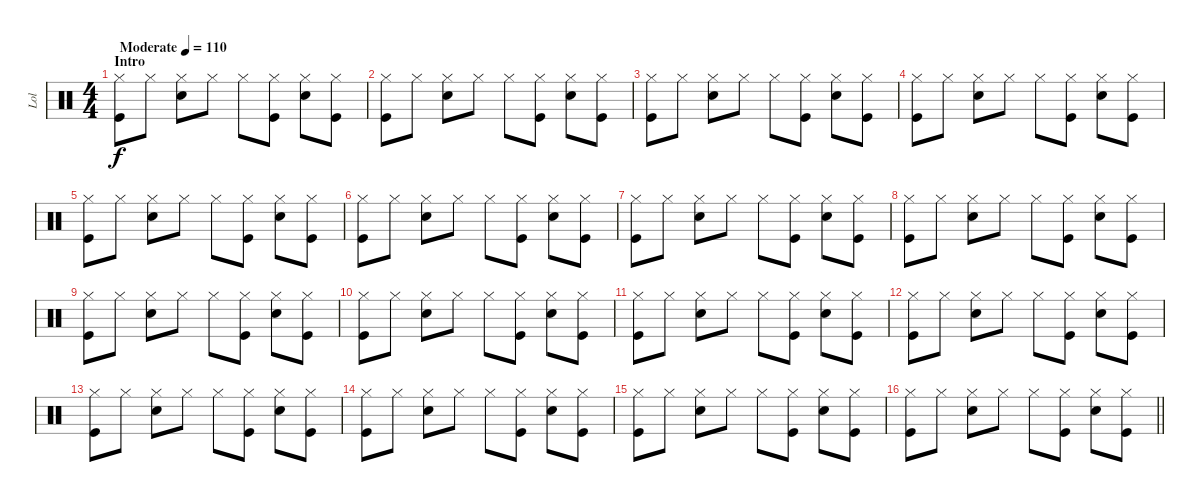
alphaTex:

\track ("Lol" "Lol") {instrument percussion}
\staff {score}
\articulation defaults
\ts (4 4)
\section ("" "Intro")
\tempo (110 "Moderate")
\clef neutral
\ks c
("Hi-Hat (closed)" "Kick (hit)").8{dy f} "Hi-Hat (closed)".8 ("Hi-Hat (closed)" "Electric Snare (hit)").8 "Hi-Hat (closed)".8 "Hi-Hat (closed)".8 ("Hi-Hat (closed)" "Kick (hit)").8 ("Hi-Hat (closed)" "Electric Snare (hit)").8 ("Hi-Hat (closed)" "Kick (hit)").8 |
("Hi-Hat (closed)" "Kick (hit)").8 "Hi-Hat (closed)".8 ("Hi-Hat (closed)" "Electric Snare (hit)").8 "Hi-Hat (closed)".8 "Hi-Hat (closed)".8 ("Hi-Hat (closed)" "Kick (hit)").8 ("Hi-Hat (closed)" "Electric Snare (hit)").8 ("Hi-Hat (closed)" "Kick (hit)").8 |
("Hi-Hat (closed)" "Kick (hit)").8 "Hi-Hat (closed)".8 ("Hi-Hat (closed)" "Electric Snare (hit)").8 "Hi-Hat (closed)".8 "Hi-Hat (closed)".8 ("Hi-Hat (closed)" "Kick (hit)").8 ("Hi-Hat (closed)" "Electric Snare (hit)").8 ("Hi-Hat (closed)" "Kick (hit)").8 |
("Hi-Hat (closed)" "Kick (hit)").8 "Hi-Hat (closed)".8 ("Hi-Hat (closed)" "Electric Snare (hit)").8 "Hi-Hat (closed)".8 "Hi-Hat (closed)".8 ("Hi-Hat (closed)" "Kick (hit)").8 ("Hi-Hat (closed)" "Electric Snare (hit)").8 ("Hi-Hat (closed)" "Kick (hit)").8 |
("Hi-Hat (closed)" "Kick (hit)").8 "Hi-Hat (closed)".8 ("Hi-Hat (closed)" "Electric Snare (hit)").8 "Hi-Hat (closed)".8 "Hi-Hat (closed)".8 ("Hi-Hat (closed)" "Kick (hit)").8 ("Hi-Hat (closed)" "Electric Snare (hit)").8 ("Hi-Hat (closed)" "Kick (hit)").8 |
("Hi-Hat (closed)" "Kick (hit)").8 "Hi-Hat (closed)".8 ("Hi-Hat (closed)" "Electric Snare (hit)").8 "Hi-Hat (closed)".8 "Hi-Hat (closed)".8 ("Hi-Hat (closed)" "Kick (hit)").8 ("Hi-Hat (closed)" "Electric Snare (hit)").8 ("Hi-Hat (closed)" "Kick (hit)").8 |
("Hi-Hat (closed)" "Kick (hit)").8 "Hi-Hat (closed)".8 ("Hi-Hat (closed)" "Electric Snare (hit)").8 "Hi-Hat (closed)".8 "Hi-Hat (closed)".8 ("Hi-Hat (closed)" "Kick (hit)").8 ("Hi-Hat (closed)" "Electric Snare (hit)").8 ("Hi-Hat (closed)" "Kick (hit)").8 |
("Hi-Hat (closed)" "Kick (hit)").8 "Hi-Hat (closed)".8 ("Hi-Hat (closed)" "Electric Snare (hit)").8 "Hi-Hat (closed)".8 "Hi-Hat (closed)".8 ("Hi-Hat (closed)" "Kick (hit)").8 ("Hi-Hat (closed)" "Electric Snare (hit)").8 ("Hi-Hat (closed)" "Kick (hit)").8 |
("Hi-Hat (closed)" "Kick (hit)").8 "Hi-Hat (closed)".8 ("Hi-Hat (closed)" "Electric Snare (hit)").8 "Hi-Hat (closed)".8 "Hi-Hat (closed)".8 ("Hi-Hat (closed)" "Kick (hit)").8 ("Hi-Hat (closed)" "Electric Snare (hit)").8 ("Hi-Hat (closed)" "Kick (hit)").8 |
("Hi-Hat (closed)" "Kick (hit)").8 "Hi-Hat (closed)".8 ("Hi-Hat (closed)" "Electric Snare (hit)").8 "Hi-Hat (closed)".8 "Hi-Hat (closed)".8 ("Hi-Hat (closed)" "Kick (hit)").8 ("Hi-Hat (closed)" "Electric Snare (hit)").8 ("Hi-Hat (closed)" "Kick (hit)").8 |
("Hi-Hat (closed)" "Kick (hit)").8 "Hi-Hat (closed)".8 ("Hi-Hat (closed)" "Electric Snare (hit)").8 "Hi-Hat (closed)".8 "Hi-Hat (closed)".8 ("Hi-Hat (closed)" "Kick (hit)").8 ("Hi-Hat (closed)" "Electric Snare (hit)").8 ("Hi-Hat (closed)" "Kick (hit)").8 |
("Hi-Hat (closed)" "Kick (hit)").8 "Hi-Hat (closed)".8 ("Hi-Hat (closed)" "Electric Snare (hit)").8 "Hi-Hat (closed)".8 "Hi-Hat (closed)".8 ("Hi-Hat (closed)" "Kick (hit)").8 ("Hi-Hat (closed)" "Electric Snare (hit)").8 ("Hi-Hat (closed)" "Kick (hit)").8 |
("Hi-Hat (closed)" "Kick (hit)").8 "Hi-Hat (closed)".8 ("Hi-Hat (closed)" "Electric Snare (hit)").8 "Hi-Hat (closed)".8 "Hi-Hat (closed)".8 ("Hi-Hat (closed)" "Kick (hit)").8 ("Hi-Hat (closed)" "Electric Snare (hit)").8 ("Hi-Hat (closed)" "Kick (hit)").8 |
("Hi-Hat (closed)" "Kick (hit)").8 "Hi-Hat (closed)".8 ("Hi-Hat (closed)" "Electric Snare (hit)").8 "Hi-Hat (closed)".8 "Hi-Hat (closed)".8 ("Hi-Hat (closed)" "Kick (hit)").8 ("Hi-Hat (closed)" "Electric Snare (hit)").8 ("Hi-Hat (closed)" "Kick (hit)").8 |
("Hi-Hat (closed)" "Kick (hit)").8 "Hi-Hat (closed)".8 ("Hi-Hat (closed)" "Electric Snare (hit)").8 "Hi-Hat (closed)".8 "Hi-Hat (closed)".8 ("Hi-Hat (closed)" "Kick (hit)").8 ("Hi-Hat (closed)" "Electric Snare (hit)").8 ("Hi-Hat (closed)" "Kick (hit)").8 |
\barLineRight lightlight
("Hi-Hat (closed)" "Kick (hit)").8 "Hi-Hat (closed)".8 ("Hi-Hat (closed)" "Electric Snare (hit)").8 "Hi-Hat (closed)".8 "Hi-Hat (closed)".8 ("Hi-Hat (closed)" "Kick (hit)").8 ("Hi-Hat (closed)" "Electric Snare (hit)").8 ("Hi-Hat (closed)" "Kick (hit)").8
